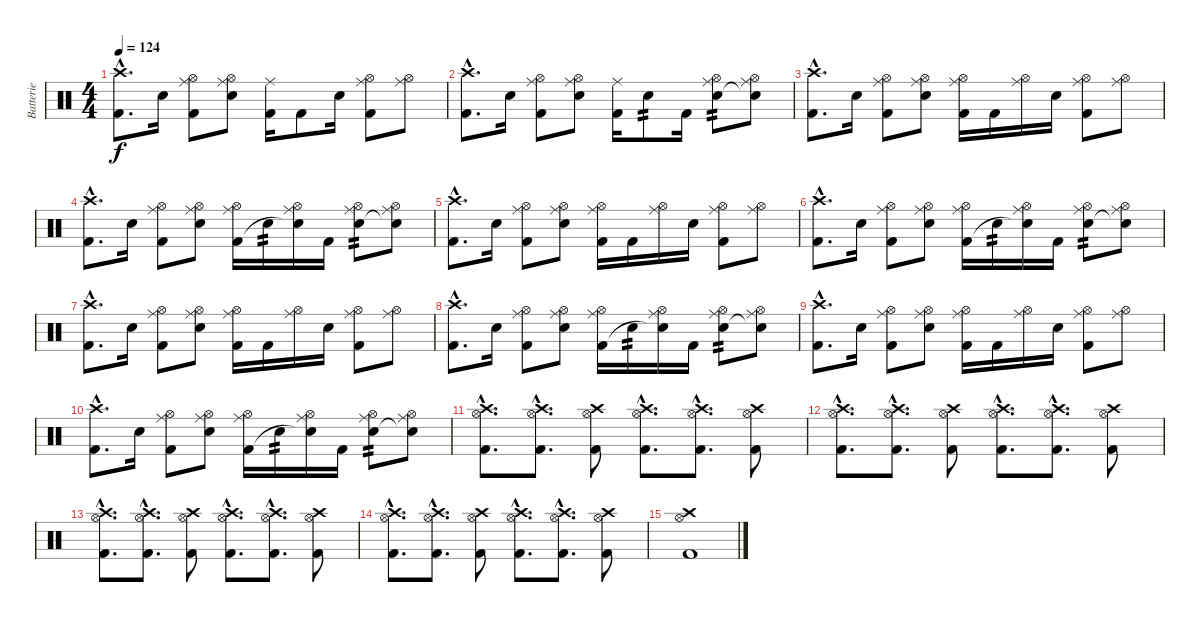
\track ("Batterie" "Batterie") {instrument percussion}
\staff {score}
\articulation defaults
\ts (4 4)
\tempo 124
\clef neutral
\ks c
("Crash high (hit)"{hac} "Kick (hit) 2"{hac}).8{d dy f} "Electric Snare (hit)".16 ("Ride (middle)" "Hi-Hat (open)" "Kick (hit) 2").8 ("Ride (middle)" "Hi-Hat (open)" "Electric Snare (hit)").8 ("Ride (middle)" "Kick (hit) 2").16 "Kick (hit) 2".8 "Electric Snare (hit)".16 ("Ride (middle)" "Hi-Hat (open)" "Kick (hit) 2").8 ("Ride (middle)" "Hi-Hat (open)").8 |
("Crash high (hit)"{hac} "Kick (hit) 2"{hac}).8{d} "Electric Snare (hit)".16 ("Ride (middle)" "Hi-Hat (open)" "Kick (hit) 2").8 ("Ride (middle)" "Hi-Hat (open)" "Electric Snare (hit)").8 ("Ride (middle)" "Kick (hit) 2").16 "Electric Snare (hit)".8{tp 2} "Kick (hit) 2".16 ("Ride (middle)" "Hi-Hat (open)" "Electric Snare (hit)").8{tp 2} ("Ride (middle)" "Hi-Hat (open)" "Snare (hit)"{t}).8 |
("Crash high (hit)"{hac} "Kick (hit) 2"{hac}).8{d volume 14} "Electric Snare (hit)".16 ("Ride (middle)" "Hi-Hat (open)" "Kick (hit) 2").8 ("Ride (middle)" "Hi-Hat (open)" "Electric Snare (hit)").8 ("Ride (middle)" "Hi-Hat (open)" "Kick (hit) 2").16 "Kick (hit) 2".16 ("Ride (middle)" "Hi-Hat (open)").16 "Electric Snare (hit)".16 ("Ride (middle)" "Hi-Hat (open)" "Kick (hit) 2").8 ("Ride (middle)" "Hi-Hat (open)").8 |
("Crash high (hit)"{hac} "Kick (hit) 2"{hac}).8{d} "Electric Snare (hit)".16 ("Ride (middle)" "Hi-Hat (open)" "Kick (hit) 2").8 ("Ride (middle)" "Hi-Hat (open)" "Electric Snare (hit)").8 ("Ride (middle)" "Hi-Hat (open)" "Kick (hit) 2").16 "Electric Snare (hit)".16{tp 2} ("Ride (middle)" "Hi-Hat (open)" "Snare (hit)"{t}).16 "Kick (hit) 2".16 ("Ride (middle)" "Hi-Hat (open)" "Electric Snare (hit)").8{tp 2} ("Ride (middle)" "Hi-Hat (open)" "Snare (hit)"{t}).8 |
("Crash high (hit)"{hac} "Kick (hit) 2"{hac}).8{d} "Electric Snare (hit)".16 ("Ride (middle)" "Hi-Hat (open)" "Kick (hit) 2").8 ("Ride (middle)" "Hi-Hat (open)" "Electric Snare (hit)").8 ("Ride (middle)" "Hi-Hat (open)" "Kick (hit) 2").16 "Kick (hit) 2".16 ("Ride (middle)" "Hi-Hat (open)").16 "Electric Snare (hit)".16 ("Ride (middle)" "Hi-Hat (open)" "Kick (hit) 2").8 ("Ride (middle)" "Hi-Hat (open)").8 |
("Crash high (hit)"{hac} "Kick (hit) 2"{hac}).8{d} "Electric Snare (hit)".16 ("Ride (middle)" "Hi-Hat (open)" "Kick (hit) 2").8 ("Ride (middle)" "Hi-Hat (open)" "Electric Snare (hit)").8 ("Ride (middle)" "Hi-Hat (open)" "Kick (hit) 2").16 "Electric Snare (hit)".16{tp 2} ("Ride (middle)" "Hi-Hat (open)" "Snare (hit)"{t}).16 "Kick (hit) 2".16 ("Ride (middle)" "Hi-Hat (open)" "Electric Snare (hit)").8{tp 2} ("Ride (middle)" "Hi-Hat (open)" "Snare (hit)"{t}).8 |
("Crash high (hit)"{hac} "Kick (hit) 2"{hac}).8{d} "Electric Snare (hit)".16 ("Ride (middle)" "Hi-Hat (open)" "Kick (hit) 2").8 ("Ride (middle)" "Hi-Hat (open)" "Electric Snare (hit)").8 ("Ride (middle)" "Hi-Hat (open)" "Kick (hit) 2").16 "Kick (hit) 2".16 ("Ride (middle)" "Hi-Hat (open)").16 "Electric Snare (hit)".16 ("Ride (middle)" "Hi-Hat (open)" "Kick (hit) 2").8 ("Ride (middle)" "Hi-Hat (open)").8 |
("Crash high (hit)"{hac} "Kick (hit) 2"{hac}).8{d} "Electric Snare (hit)".16 ("Ride (middle)" "Hi-Hat (open)" "Kick (hit) 2").8 ("Ride (middle)" "Hi-Hat (open)" "Electric Snare (hit)").8 ("Ride (middle)" "Hi-Hat (open)" "Kick (hit) 2").16 "Electric Snare (hit)".16{tp 2} ("Ride (middle)" "Hi-Hat (open)" "Snare (hit)"{t}).16 "Kick (hit) 2".16 ("Ride (middle)" "Hi-Hat (open)" "Electric Snare (hit)").8{tp 2} ("Ride (middle)" "Hi-Hat (open)" "Snare (hit)"{t}).8 |
("Crash high (hit)"{hac} "Kick (hit) 2"{hac}).8{d} "Electric Snare (hit)".16 ("Ride (middle)" "Hi-Hat (open)" "Kick (hit) 2").8 ("Ride (middle)" "Hi-Hat (open)" "Electric Snare (hit)").8 ("Ride (middle)" "Hi-Hat (open)" "Kick (hit) 2").16 "Kick (hit) 2".16 ("Ride (middle)" "Hi-Hat (open)").16 "Electric Snare (hit)".16 ("Ride (middle)" "Hi-Hat (open)" "Kick (hit) 2").8 ("Ride (middle)" "Hi-Hat (open)").8 |
("Crash high (hit)"{hac} "Kick (hit) 2"{hac}).8{d} "Electric Snare (hit)".16 ("Ride (middle)" "Hi-Hat (open)" "Kick (hit) 2").8 ("Ride (middle)" "Hi-Hat (open)" "Electric Snare (hit)").8 ("Ride (middle)" "Hi-Hat (open)" "Kick (hit) 2").16 "Electric Snare (hit)".16{tp 2} ("Ride (middle)" "Hi-Hat (open)" "Snare (hit)"{t}).16 "Kick (hit) 2".16 ("Ride (middle)" "Hi-Hat (open)" "Electric Snare (hit)").8{tp 2} ("Ride (middle)" "Hi-Hat (open)" "Snare (hit)"{t}).8 |
("Crash high (hit)"{hac} "Hi-Hat (open)"{hac} "Kick (hit) 2"{hac}).8{d} ("Crash high (hit)"{hac} "Hi-Hat (open)"{hac} "Kick (hit) 2"{hac}).8{d} ("Crash high (hit)" "Hi-Hat (open)" "Kick (hit) 2").8 ("Crash high (hit)"{hac} "Hi-Hat (open)"{hac} "Kick (hit) 2"{hac}).8{d} ("Crash high (hit)"{hac} "Hi-Hat (open)"{hac} "Kick (hit) 2"{hac}).8{d} ("Crash high (hit)" "Hi-Hat (open)" "Kick (hit) 2").8 |
("Crash high (hit)"{hac} "Hi-Hat (open)"{hac} "Kick (hit) 2"{hac}).8{d} ("Crash high (hit)"{hac} "Hi-Hat (open)"{hac} "Kick (hit) 2"{hac}).8{d} ("Crash high (hit)" "Hi-Hat (open)" "Kick (hit) 2").8 ("Crash high (hit)"{hac} "Hi-Hat (open)"{hac} "Kick (hit) 2"{hac}).8{d} ("Crash high (hit)"{hac} "Hi-Hat (open)"{hac} "Kick (hit) 2"{hac}).8{d} ("Crash high (hit)" "Hi-Hat (open)" "Kick (hit) 2").8 |
("Crash high (hit)"{hac} "Hi-Hat (open)"{hac} "Kick (hit) 2"{hac}).8{d} ("Crash high (hit)"{hac} "Hi-Hat (open)"{hac} "Kick (hit) 2"{hac}).8{d} ("Crash high (hit)" "Hi-Hat (open)" "Kick (hit) 2").8 ("Crash high (hit)"{hac} "Hi-Hat (open)"{hac} "Kick (hit) 2"{hac}).8{d} ("Crash high (hit)"{hac} "Hi-Hat (open)"{hac} "Kick (hit) 2"{hac}).8{d} ("Crash high (hit)" "Hi-Hat (open)" "Kick (hit) 2").8 |
("Crash high (hit)"{hac} "Hi-Hat (open)"{hac} "Kick (hit) 2"{hac}).8{d} ("Crash high (hit)"{hac} "Hi-Hat (open)"{hac} "Kick (hit) 2"{hac}).8{d} ("Crash high (hit)" "Hi-Hat (open)" "Kick (hit) 2").8 ("Crash high (hit)"{hac} "Hi-Hat (open)"{hac} "Kick (hit) 2"{hac}).8{d} ("Crash high (hit)"{hac} "Hi-Hat (open)"{hac} "Kick (hit) 2"{hac}).8{d} ("Crash high (hit)" "Hi-Hat (open)" "Kick (hit) 2").8 |
("Crash high (hit)" "Hi-Hat (open)" "Kick (hit) 2").1
